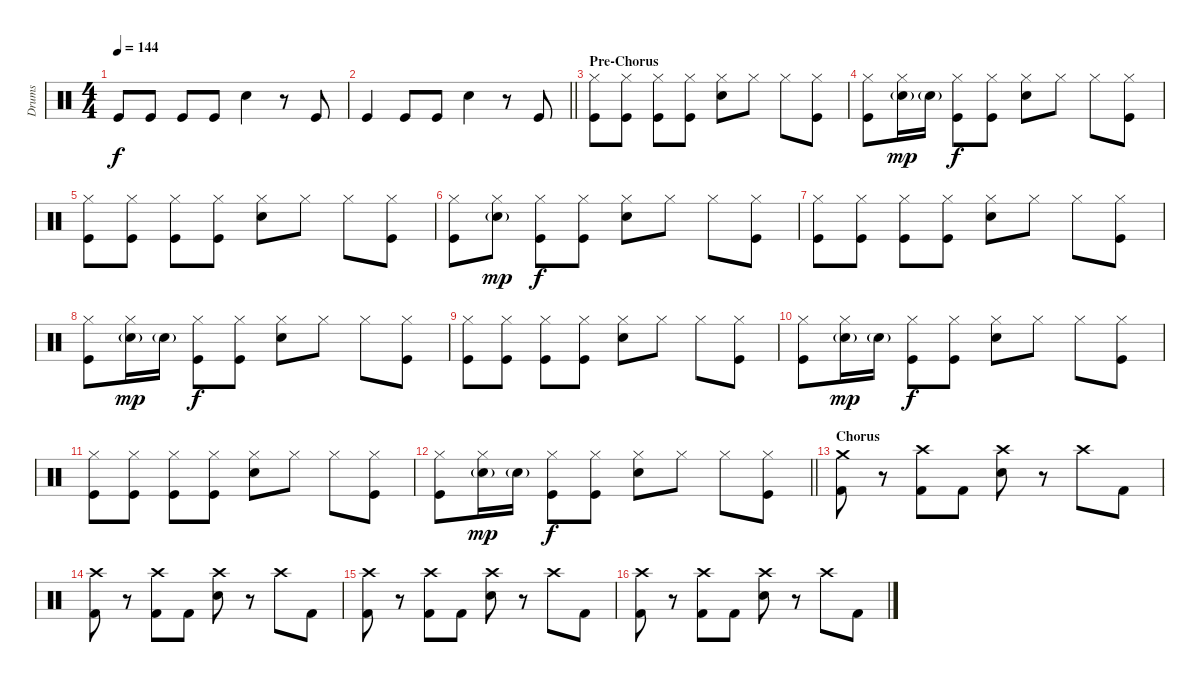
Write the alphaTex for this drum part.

\track ("Drums" "Drums") {instrument percussion}
\staff {score}
\articulation defaults
\ts (4 4)
\tempo 144
\clef neutral
\ks c "Kick (hit)".8{dy f} "Kick (hit)".8 "Kick (hit)".8 "Kick (hit)".8 "Snare (hit) 2".4
r.8 "Kick (hit)".8 |
\barLineRight lightlight "Kick (hit)".4 "Kick (hit)".8 "Kick (hit)".8 "Snare (hit) 2".4
r.8 "Kick (hit)".8 |
\section ("" "Pre-Chorus")
("Hi-Hat (closed)" "Kick (hit)").8 ("Hi-Hat (closed)" "Kick (hit)").8 ("Hi-Hat (closed)" "Kick (hit)").8 ("Hi-Hat (closed)" "Kick (hit)").8 ("Hi-Hat (closed)" "Snare (hit) 2").8 "Hi-Hat (closed)".8 "Hi-Hat (closed)".8 ("Hi-Hat (closed)" "Kick (hit)").8 |
("Hi-Hat (closed)" "Kick (hit)").8 ("Hi-Hat (closed)" "Electric Snare (hit)"{g}).16{dy mp} "Electric Snare (hit)"{g}.16 ("Hi-Hat (closed)" "Kick (hit)").8{dy f} ("Hi-Hat (closed)" "Kick (hit)").8 ("Hi-Hat (closed)" "Snare (hit) 2").8 "Hi-Hat (closed)".8 "Hi-Hat (closed)".8 ("Hi-Hat (closed)" "Kick (hit)").8 |
("Hi-Hat (closed)" "Kick (hit)").8 ("Hi-Hat (closed)" "Kick (hit)").8 ("Hi-Hat (closed)" "Kick (hit)").8 ("Hi-Hat (closed)" "Kick (hit)").8 ("Hi-Hat (closed)" "Snare (hit) 2").8 "Hi-Hat (closed)".8 "Hi-Hat (closed)".8 ("Hi-Hat (closed)" "Kick (hit)").8 |
("Hi-Hat (closed)" "Kick (hit)").8 ("Hi-Hat (closed)" "Electric Snare (hit)"{g}).8{dy mp} ("Hi-Hat (closed)" "Kick (hit)").8{dy f} ("Hi-Hat (closed)" "Kick (hit)").8 ("Hi-Hat (closed)" "Snare (hit) 2").8 "Hi-Hat (closed)".8 "Hi-Hat (closed)".8 ("Hi-Hat (closed)" "Kick (hit)").8 |
("Hi-Hat (closed)" "Kick (hit)").8 ("Hi-Hat (closed)" "Kick (hit)").8 ("Hi-Hat (closed)" "Kick (hit)").8 ("Hi-Hat (closed)" "Kick (hit)").8 ("Hi-Hat (closed)" "Snare (hit) 2").8 "Hi-Hat (closed)".8 "Hi-Hat (closed)".8 ("Hi-Hat (closed)" "Kick (hit)").8 |
("Hi-Hat (closed)" "Kick (hit)").8 ("Hi-Hat (closed)" "Electric Snare (hit)"{g}).16{dy mp} "Electric Snare (hit)"{g}.16 ("Hi-Hat (closed)" "Kick (hit)").8{dy f} ("Hi-Hat (closed)" "Kick (hit)").8 ("Hi-Hat (closed)" "Snare (hit) 2").8 "Hi-Hat (closed)".8 "Hi-Hat (closed)".8 ("Hi-Hat (closed)" "Kick (hit)").8 |
("Hi-Hat (closed)" "Kick (hit)").8 ("Hi-Hat (closed)" "Kick (hit)").8 ("Hi-Hat (closed)" "Kick (hit)").8 ("Hi-Hat (closed)" "Kick (hit)").8 ("Hi-Hat (closed)" "Snare (hit) 2").8 "Hi-Hat (closed)".8 "Hi-Hat (closed)".8 ("Hi-Hat (closed)" "Kick (hit)").8 |
("Hi-Hat (closed)" "Kick (hit)").8 ("Hi-Hat (closed)" "Electric Snare (hit)"{g}).16{dy mp} "Electric Snare (hit)"{g}.16 ("Hi-Hat (closed)" "Kick (hit)").8{dy f} ("Hi-Hat (closed)" "Kick (hit)").8 ("Hi-Hat (closed)" "Snare (hit) 2").8 "Hi-Hat (closed)".8 "Hi-Hat (closed)".8 ("Hi-Hat (closed)" "Kick (hit)").8 |
("Hi-Hat (closed)" "Kick (hit)").8 ("Hi-Hat (closed)" "Kick (hit)").8 ("Hi-Hat (closed)" "Kick (hit)").8 ("Hi-Hat (closed)" "Kick (hit)").8 ("Hi-Hat (closed)" "Snare (hit) 2").8 "Hi-Hat (closed)".8 "Hi-Hat (closed)".8 ("Hi-Hat (closed)" "Kick (hit)").8 |
\barLineRight lightlight
("Hi-Hat (closed)" "Kick (hit)").8 ("Hi-Hat (closed)" "Electric Snare (hit)"{g}).16{dy mp} "Electric Snare (hit)"{g}.16 ("Hi-Hat (closed)" "Kick (hit)").8{dy f} ("Hi-Hat (closed)" "Kick (hit)").8 ("Hi-Hat (closed)" "Snare (hit) 2").8 "Hi-Hat (closed)".8 "Hi-Hat (closed)".8 ("Hi-Hat (closed)" "Kick (hit)").8 |
\section ("" "Chorus")
("Crash medium (hit)" "Kick (hit) 2").8 r.8 ("Crash high (hit)" "Kick (hit) 2").8 "Kick (hit) 2".8 ("Crash high (hit)" "Electric Snare (hit)").8 r.8 "Crash high (hit)".8 "Kick (hit) 2".8 |
("Crash high (hit)" "Kick (hit) 2").8 r.8 ("Crash high (hit)" "Kick (hit) 2").8 "Kick (hit) 2".8 ("Crash high (hit)" "Electric Snare (hit)").8 r.8 "Crash high (hit)".8 "Kick (hit) 2".8 |
("Crash high (hit)" "Kick (hit) 2").8 r.8 ("Crash high (hit)" "Kick (hit) 2").8 "Kick (hit) 2".8 ("Crash high (hit)" "Electric Snare (hit)").8 r.8 "Crash high (hit)".8 "Kick (hit) 2".8 |
("Crash high (hit)" "Kick (hit) 2").8 r.8 ("Crash high (hit)" "Kick (hit) 2").8 "Kick (hit) 2".8 ("Crash high (hit)" "Electric Snare (hit)").8 r.8 "Crash high (hit)".8 "Kick (hit) 2".8
